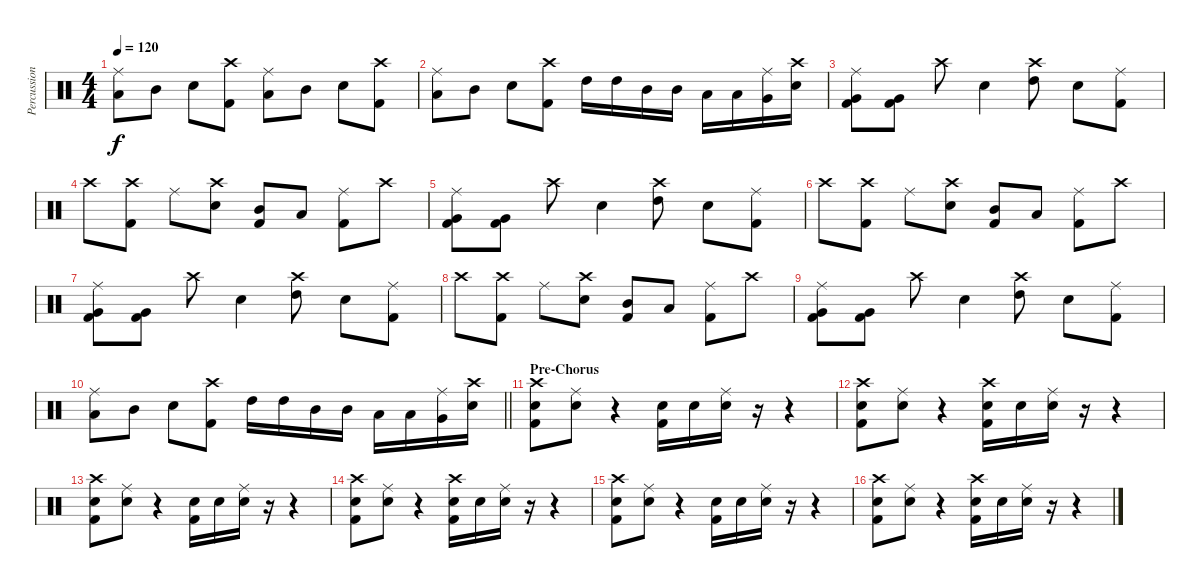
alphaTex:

\track ("Percussion" "Percussion") {instrument percussion}
\staff {score}
\articulation defaults
\ts (4 4)
\tempo 120
\clef neutral
\ks c
("Ride (middle)" "Low Tom (hit)").8{dy f} "Mid Tom (hit)".8 "Electric Snare (hit)".8 ("Crash high (hit)" "Kick (hit) 2").8 ("Ride (middle)" "Low Tom (hit)").8 "Mid Tom (hit)".8 "Electric Snare (hit)".8 ("Crash high (hit)" "Kick (hit) 2").8 |
("Ride (middle)" "Low Tom (hit)").8 "Mid Tom (hit)".8 "Electric Snare (hit)".8 ("Crash high (hit)" "Kick (hit) 2").8 "High Tom (hit)".16 "High Tom (hit)".16 "Mid Tom (hit)".16 "Mid Tom (hit)".16 "Low Tom (hit)".16 "Low Tom (hit)".16 ("Ride (middle)" "Very Low Tom (hit)").16 ("Crash high (hit)" "Electric Snare (hit)").16 |
("Ride (middle)" "Very Low Tom (hit)" "Kick (hit) 2").8 ("Very Low Tom (hit)" "Kick (hit) 2").8 "Crash high (hit)".8 "Electric Snare (hit)".4 ("Crash high (hit)" "High Tom (hit)").8 "Electric Snare (hit)".8 ("Ride (middle)" "Kick (hit) 2").8 |
"Crash high (hit)".8 ("Crash high (hit)" "Kick (hit) 2").8 "Ride (middle)".8 ("Crash high (hit)" "Electric Snare (hit)").8 ("Mid Tom (hit)" "Kick (hit) 2").8 "Low Tom (hit)".8 ("Ride (middle)" "Kick (hit) 2").8 "Crash high (hit)".8 |
("Ride (middle)" "Very Low Tom (hit)" "Kick (hit) 2").8 ("Very Low Tom (hit)" "Kick (hit) 2").8 "Crash high (hit)".8 "Electric Snare (hit)".4 ("Crash high (hit)" "High Tom (hit)").8 "Electric Snare (hit)".8 ("Ride (middle)" "Kick (hit) 2").8 |
"Crash high (hit)".8 ("Crash high (hit)" "Kick (hit) 2").8 "Ride (middle)".8 ("Crash high (hit)" "Electric Snare (hit)").8 ("Mid Tom (hit)" "Kick (hit) 2").8 "Low Tom (hit)".8 ("Ride (middle)" "Kick (hit) 2").8 "Crash high (hit)".8 |
("Ride (middle)" "Very Low Tom (hit)" "Kick (hit) 2").8 ("Very Low Tom (hit)" "Kick (hit) 2").8 "Crash high (hit)".8 "Electric Snare (hit)".4 ("Crash high (hit)" "High Tom (hit)").8 "Electric Snare (hit)".8 ("Ride (middle)" "Kick (hit) 2").8 |
"Crash high (hit)".8 ("Crash high (hit)" "Kick (hit) 2").8 "Ride (middle)".8 ("Crash high (hit)" "Electric Snare (hit)").8 ("Mid Tom (hit)" "Kick (hit) 2").8 "Low Tom (hit)".8 ("Ride (middle)" "Kick (hit) 2").8 "Crash high (hit)".8 |
("Ride (middle)" "Very Low Tom (hit)" "Kick (hit) 2").8 ("Very Low Tom (hit)" "Kick (hit) 2").8 "Crash high (hit)".8 "Electric Snare (hit)".4 ("Crash high (hit)" "High Tom (hit)").8 "Electric Snare (hit)".8 ("Ride (middle)" "Kick (hit) 2").8 |
\barLineRight lightlight
("Ride (middle)" "Low Tom (hit)").8 "Mid Tom (hit)".8 "Electric Snare (hit)".8 ("Crash high (hit)" "Kick (hit) 2").8 "High Tom (hit)".16 "High Tom (hit)".16 "Mid Tom (hit)".16 "Mid Tom (hit)".16 "Low Tom (hit)".16 "Low Tom (hit)".16 ("Ride (middle)" "Very Low Tom (hit)").16 ("Crash high (hit)" "Electric Snare (hit)").16 |
\section ("" "Pre-Chorus")
("Crash high (hit)" "Electric Snare (hit)" "Kick (hit) 2").8 ("Ride (middle)" "Electric Snare (hit)").8 r.4 ("Electric Snare (hit)" "Kick (hit) 2").16 "Electric Snare (hit)".16 ("Ride (middle)" "Electric Snare (hit)").16 r.16 r.4 |
("Crash high (hit)" "Electric Snare (hit)" "Kick (hit) 2").8 ("Ride (middle)" "Electric Snare (hit)").8 r.4 ("Crash high (hit)" "Electric Snare (hit)" "Kick (hit) 2").16 "Electric Snare (hit)".16 ("Ride (middle)" "Electric Snare (hit)").16 r.16 r.4 |
("Crash high (hit)" "Electric Snare (hit)" "Kick (hit) 2").8 ("Ride (middle)" "Electric Snare (hit)").8 r.4 ("Electric Snare (hit)" "Kick (hit) 2").16 "Electric Snare (hit)".16 ("Ride (middle)" "Electric Snare (hit)").16 r.16 r.4 |
("Crash high (hit)" "Electric Snare (hit)" "Kick (hit) 2").8 ("Ride (middle)" "Electric Snare (hit)").8 r.4 ("Crash high (hit)" "Electric Snare (hit)" "Kick (hit) 2").16 "Electric Snare (hit)".16 ("Ride (middle)" "Electric Snare (hit)").16 r.16 r.4 |
("Crash high (hit)" "Electric Snare (hit)" "Kick (hit) 2").8 ("Ride (middle)" "Electric Snare (hit)").8 r.4 ("Electric Snare (hit)" "Kick (hit) 2").16 "Electric Snare (hit)".16 ("Ride (middle)" "Electric Snare (hit)").16 r.16 r.4 |
("Crash high (hit)" "Electric Snare (hit)" "Kick (hit) 2").8 ("Ride (middle)" "Electric Snare (hit)").8 r.4 ("Crash high (hit)" "Electric Snare (hit)" "Kick (hit) 2").16 "Electric Snare (hit)".16 ("Ride (middle)" "Electric Snare (hit)").16 r.16 r.4
